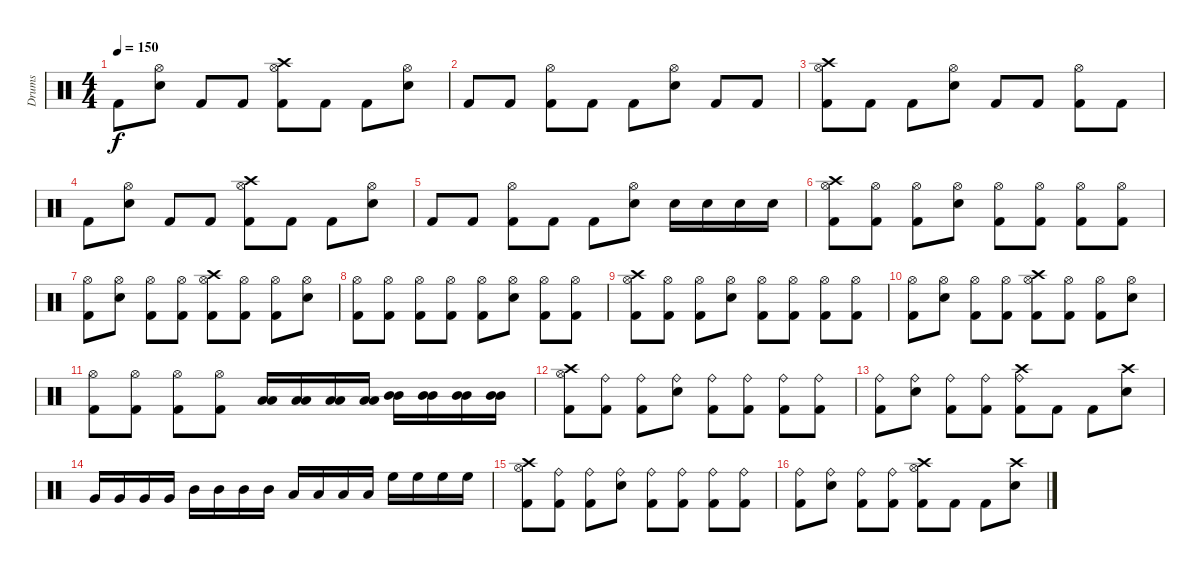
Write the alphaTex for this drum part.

\track ("Drums" "Drums") {instrument percussion}
\staff {score}
\articulation defaults
\ts (4 4)
\tempo 150
\clef neutral
\ks c "Kick (hit) 2".8{dy f}
("Hi-Hat (open)" "Snare (hit) 2").8 "Kick (hit) 2".8 "Kick (hit) 2".8 ("Crash high (hit)" "Hi-Hat (open)" "Kick (hit) 2").8 "Kick (hit) 2".8 "Kick (hit) 2".8 ("Hi-Hat (open)" "Snare (hit) 2").8 |
"Kick (hit) 2".8 "Kick (hit) 2".8 ("Hi-Hat (open)" "Kick (hit) 2").8 "Kick (hit) 2".8 "Kick (hit) 2".8 ("Hi-Hat (open)" "Snare (hit) 2").8 "Kick (hit) 2".8 "Kick (hit) 2".8 |
("Crash high (hit)" "Kick (hit) 2" "Hi-Hat (open)").8 "Kick (hit) 2".8 "Kick (hit) 2".8 ("Hi-Hat (open)" "Snare (hit) 2").8 "Kick (hit) 2".8 "Kick (hit) 2".8 ("Hi-Hat (open)" "Kick (hit) 2").8 "Kick (hit) 2".8 |
"Kick (hit) 2".8 ("Hi-Hat (open)" "Snare (hit) 2").8 "Kick (hit) 2".8 "Kick (hit) 2".8 ("Crash high (hit)" "Hi-Hat (open)" "Kick (hit) 2").8 "Kick (hit) 2".8 "Kick (hit) 2".8 ("Hi-Hat (open)" "Snare (hit) 2").8 |
"Kick (hit) 2".8 "Kick (hit) 2".8 ("Hi-Hat (open)" "Kick (hit) 2").8 "Kick (hit) 2".8 "Kick (hit) 2".8 ("Hi-Hat (open)" "Snare (hit) 2").8 "Snare (hit) 2".16 "Snare (hit) 2".16 "Snare (hit) 2".16 "Snare (hit) 2".16 |
("Crash high (hit)" "Kick (hit) 2" "Hi-Hat (open)").8 ("Hi-Hat (open)" "Kick (hit) 2").8 ("Hi-Hat (open)" "Kick (hit) 2").8 ("Hi-Hat (open)" "Snare (hit) 2").8 ("Hi-Hat (open)" "Kick (hit) 2").8 ("Hi-Hat (open)" "Kick (hit) 2").8 ("Hi-Hat (open)" "Kick (hit) 2").8 ("Hi-Hat (open)" "Kick (hit) 2").8 |
("Hi-Hat (open)" "Kick (hit) 2").8 ("Hi-Hat (open)" "Snare (hit) 2").8 ("Hi-Hat (open)" "Kick (hit) 2").8 ("Hi-Hat (open)" "Kick (hit) 2").8 ("Crash high (hit)" "Hi-Hat (open)" "Kick (hit) 2").8 ("Hi-Hat (open)" "Kick (hit) 2").8 ("Hi-Hat (open)" "Kick (hit) 2").8 ("Hi-Hat (open)" "Snare (hit) 2").8 |
("Hi-Hat (open)" "Kick (hit) 2").8 ("Hi-Hat (open)" "Kick (hit) 2").8 ("Hi-Hat (open)" "Kick (hit) 2").8 ("Hi-Hat (open)" "Kick (hit) 2").8 ("Hi-Hat (open)" "Kick (hit) 2").8 ("Hi-Hat (open)" "Snare (hit) 2").8 ("Hi-Hat (open)" "Kick (hit) 2").8 ("Hi-Hat (open)" "Kick (hit) 2").8 |
("Crash high (hit)" "Kick (hit) 2" "Hi-Hat (open)").8 ("Hi-Hat (open)" "Kick (hit) 2").8 ("Hi-Hat (open)" "Kick (hit) 2").8 ("Hi-Hat (open)" "Snare (hit) 2").8 ("Hi-Hat (open)" "Kick (hit) 2").8 ("Hi-Hat (open)" "Kick (hit) 2").8 ("Hi-Hat (open)" "Kick (hit) 2").8 ("Hi-Hat (open)" "Kick (hit) 2").8 |
("Hi-Hat (open)" "Kick (hit) 2").8 ("Hi-Hat (open)" "Snare (hit) 2").8 ("Hi-Hat (open)" "Kick (hit) 2").8 ("Hi-Hat (open)" "Kick (hit) 2").8 ("Crash high (hit)" "Hi-Hat (open)" "Kick (hit) 2").8 ("Hi-Hat (open)" "Kick (hit) 2").8 ("Hi-Hat (open)" "Kick (hit) 2").8 ("Hi-Hat (open)" "Snare (hit) 2").8 |
("Hi-Hat (open)" "Kick (hit) 2").8 ("Hi-Hat (open)" "Kick (hit) 2").8 ("Hi-Hat (open)" "Kick (hit) 2").8 ("Hi-Hat (open)" "Kick (hit) 2").8 ("Low Tom (hit)" "Low Tom (hit)").16 ("Low Tom (hit)" "Low Tom (hit)").16 ("Low Tom (hit)" "Low Tom (hit)").16 ("Low Tom (hit)" "Low Tom (hit)").16 ("Mid Tom (hit)" "Mid Tom (hit)").16 ("Mid Tom (hit)" "Mid Tom (hit)").16 ("Mid Tom (hit)" "Mid Tom (hit)").16 ("Mid Tom (hit)" "Mid Tom (hit)").16 |
("Crash high (hit)" "Kick (hit) 2" "Hi-Hat (open)").8 ("Ride (bell)" "Kick (hit) 2").8 ("Ride (bell)" "Kick (hit) 2").8 ("Ride (bell)" "Snare (hit) 2").8 ("Ride (bell)" "Kick (hit) 2").8 ("Ride (bell)" "Kick (hit) 2").8 ("Ride (bell)" "Kick (hit) 2").8 ("Ride (bell)" "Kick (hit) 2").8 |
("Ride (bell)" "Kick (hit) 2").8 ("Ride (bell)" "Snare (hit) 2").8 ("Ride (bell)" "Kick (hit) 2").8 ("Ride (bell)" "Kick (hit) 2").8 ("Crash high (hit)" "Ride (bell)" "Kick (hit) 2").8 "Kick (hit) 2".8 "Kick (hit) 2".8 ("Crash high (hit)" "Snare (hit) 2").8 |
"Very Low Tom (hit)".16 "Very Low Tom (hit)".16 "Very Low Tom (hit)".16 "Very Low Tom (hit)".16 "Mid Tom (hit)".16 "Mid Tom (hit)".16 "Mid Tom (hit)".16 "Mid Tom (hit)".16 "Low Tom (hit)".16 "Low Tom (hit)".16 "Low Tom (hit)".16 "Low Tom (hit)".16 "High Floor Tom (hit)".16 "High Floor Tom (hit)".16 "High Floor Tom (hit)".16 "High Floor Tom (hit)".16 |
("Crash high (hit)" "Kick (hit) 2" "Hi-Hat (open)").8 ("Ride (bell)" "Kick (hit) 2").8 ("Ride (bell)" "Kick (hit) 2").8 ("Ride (bell)" "Snare (hit) 2").8 ("Ride (bell)" "Kick (hit) 2").8 ("Ride (bell)" "Kick (hit) 2").8 ("Ride (bell)" "Kick (hit) 2").8 ("Ride (bell)" "Kick (hit) 2").8 |
("Ride (bell)" "Kick (hit) 2").8 ("Ride (bell)" "Snare (hit) 2").8 ("Ride (bell)" "Kick (hit) 2").8 ("Ride (bell)" "Kick (hit) 2").8 ("Crash high (hit)" "Hi-Hat (open)" "Kick (hit) 2").8 "Kick (hit) 2".8 "Kick (hit) 2".8 ("Crash high (hit)" "Snare (hit) 2").8
